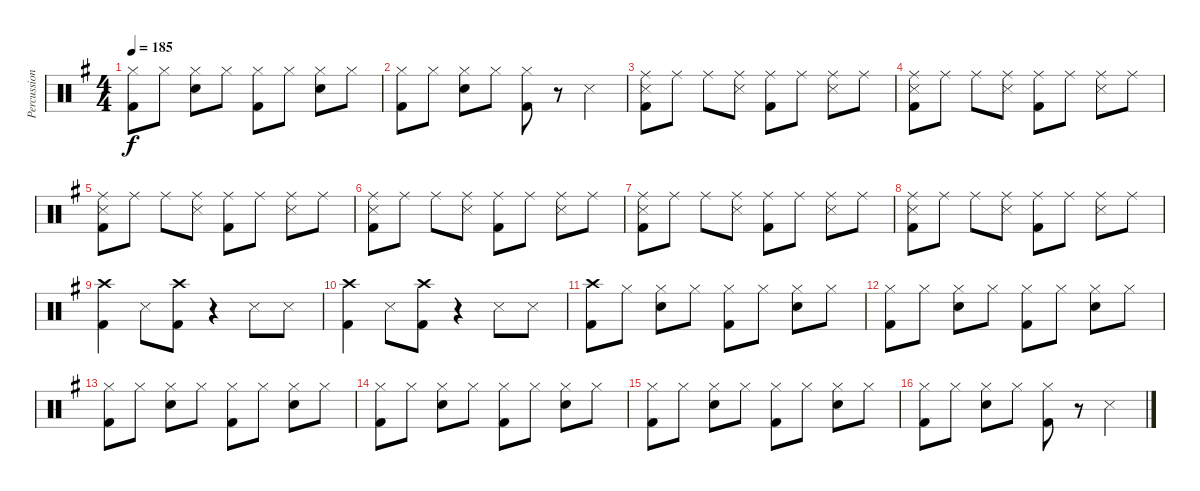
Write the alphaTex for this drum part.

\track ("Percussion" "Percussion") {instrument percussion}
\staff {score}
\articulation defaults
\ts (4 4)
\tempo 185
\clef neutral
\ks g
("Hi-Hat (closed)" "Kick (hit) 2").8{dy f} "Hi-Hat (closed)".8 ("Hi-Hat (closed)" "Snare (hit) 2").8 "Hi-Hat (closed)".8 ("Hi-Hat (closed)" "Kick (hit) 2").8 "Hi-Hat (closed)".8 ("Hi-Hat (closed)" "Snare (hit) 2").8 "Hi-Hat (closed)".8 |
("Hi-Hat (closed)" "Kick (hit) 2").8 "Hi-Hat (closed)".8 ("Hi-Hat (closed)" "Snare (hit) 2").8 "Hi-Hat (closed)".8 ("Hi-Hat (closed)" "Kick (hit) 2").8 r.8 "Snare (side stick) 3".4 |
("Ride (middle)" "Snare (side stick) 3" "Kick (hit) 2").8 "Ride (middle)".8 "Ride (middle)".8 ("Ride (middle)" "Snare (side stick) 3").8 ("Ride (middle)" "Kick (hit) 2").8 "Ride (middle)".8 ("Ride (middle)" "Snare (side stick) 3").8 "Ride (middle)".8 |
("Ride (middle)" "Snare (side stick) 3" "Kick (hit) 2").8 "Ride (middle)".8 "Ride (middle)".8 ("Ride (middle)" "Snare (side stick) 3").8 ("Ride (middle)" "Kick (hit) 2").8 "Ride (middle)".8 ("Ride (middle)" "Snare (side stick) 3").8 "Ride (middle)".8 |
("Ride (middle)" "Snare (side stick) 3" "Kick (hit) 2").8 "Ride (middle)".8 "Ride (middle)".8 ("Ride (middle)" "Snare (side stick) 3").8 ("Ride (middle)" "Kick (hit) 2").8 "Ride (middle)".8 ("Ride (middle)" "Snare (side stick) 3").8 "Ride (middle)".8 |
("Ride (middle)" "Snare (side stick) 3" "Kick (hit) 2").8 "Ride (middle)".8 "Ride (middle)".8 ("Ride (middle)" "Snare (side stick) 3").8 ("Ride (middle)" "Kick (hit) 2").8 "Ride (middle)".8 ("Ride (middle)" "Snare (side stick) 3").8 "Ride (middle)".8 |
("Ride (middle)" "Snare (side stick) 3" "Kick (hit) 2").8 "Ride (middle)".8 "Ride (middle)".8 ("Ride (middle)" "Snare (side stick) 3").8 ("Ride (middle)" "Kick (hit) 2").8 "Ride (middle)".8 ("Ride (middle)" "Snare (side stick) 3").8 "Ride (middle)".8 |
("Ride (middle)" "Snare (side stick) 3" "Kick (hit) 2").8 "Ride (middle)".8 "Ride (middle)".8 ("Ride (middle)" "Snare (side stick) 3").8 ("Ride (middle)" "Kick (hit) 2").8 "Ride (middle)".8 ("Ride (middle)" "Snare (side stick) 3").8 "Ride (middle)".8 |
("Crash high (hit)" "Kick (hit) 2").4 "Snare (side stick) 3".8 ("Crash high (hit)" "Kick (hit) 2").8 r.4 "Snare (side stick) 3".8 "Snare (side stick) 3".8 |
("Crash high (hit)" "Kick (hit) 2").4 "Snare (side stick) 3".8 ("Crash high (hit)" "Kick (hit) 2").8 r.4 "Snare (side stick) 3".8 "Snare (side stick) 3".8 |
("Crash high (hit)" "Kick (hit) 2").8 "Hi-Hat (closed)".8 ("Hi-Hat (closed)" "Snare (hit) 2").8 "Hi-Hat (closed)".8 ("Hi-Hat (closed)" "Kick (hit) 2").8 "Hi-Hat (closed)".8 ("Hi-Hat (closed)" "Snare (hit) 2").8 "Hi-Hat (closed)".8 |
("Hi-Hat (closed)" "Kick (hit) 2").8 "Hi-Hat (closed)".8 ("Hi-Hat (closed)" "Snare (hit) 2").8 "Hi-Hat (closed)".8 ("Hi-Hat (closed)" "Kick (hit) 2").8 "Hi-Hat (closed)".8 ("Hi-Hat (closed)" "Snare (hit) 2").8 "Hi-Hat (closed)".8 |
("Hi-Hat (closed)" "Kick (hit) 2").8 "Hi-Hat (closed)".8 ("Hi-Hat (closed)" "Snare (hit) 2").8 "Hi-Hat (closed)".8 ("Hi-Hat (closed)" "Kick (hit) 2").8 "Hi-Hat (closed)".8 ("Hi-Hat (closed)" "Snare (hit) 2").8 "Hi-Hat (closed)".8 |
("Hi-Hat (closed)" "Kick (hit) 2").8 "Hi-Hat (closed)".8 ("Hi-Hat (closed)" "Snare (hit) 2").8 "Hi-Hat (closed)".8 ("Hi-Hat (closed)" "Kick (hit) 2").8 "Hi-Hat (closed)".8 ("Hi-Hat (closed)" "Snare (hit) 2").8 "Hi-Hat (closed)".8 |
("Hi-Hat (closed)" "Kick (hit) 2").8 "Hi-Hat (closed)".8 ("Hi-Hat (closed)" "Snare (hit) 2").8 "Hi-Hat (closed)".8 ("Hi-Hat (closed)" "Kick (hit) 2").8 "Hi-Hat (closed)".8 ("Hi-Hat (closed)" "Snare (hit) 2").8 "Hi-Hat (closed)".8 |
("Hi-Hat (closed)" "Kick (hit) 2").8 "Hi-Hat (closed)".8 ("Hi-Hat (closed)" "Snare (hit) 2").8 "Hi-Hat (closed)".8 ("Hi-Hat (closed)" "Kick (hit) 2").8 r.8 "Snare (side stick) 3".4
